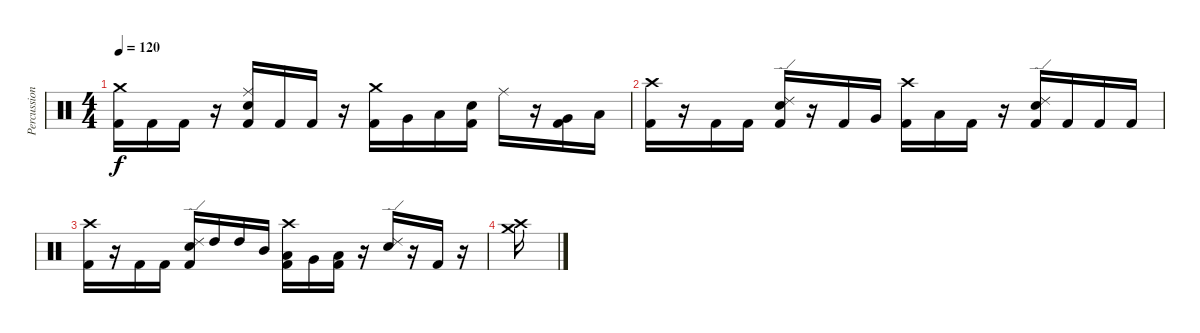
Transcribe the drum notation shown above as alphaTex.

\track ("Percussion" "Percussion") {instrument percussion}
\staff {score}
\articulation defaults
\ts (4 4)
\tempo 120
\clef neutral
\ks c
("Crash medium (hit)" "Kick (hit) 2").16{dy f} "Kick (hit) 2".16 "Kick (hit) 2".16 r.16 ("Ride (middle)" "Electric Snare (hit)" "Kick (hit) 2").16 "Kick (hit) 2".16 "Kick (hit) 2".16 r.16 ("Crash medium (hit)" "Kick (hit) 2").16 "Very Low Tom (hit)".16 "Low Tom (hit)".16 ("Electric Snare (hit)" "Kick (hit) 2").16 "Ride (middle)".16 r.16 ("Very Low Tom (hit)" "Kick (hit) 2").16 "Low Floor Tom (hit)".16 |
("Crash high (hit)" "Kick (hit) 2").16 r.16 "Kick (hit) 2".16 "Kick (hit) 2".16 ("Ride (edge) 2" "Electric Snare (hit)" "Kick (hit) 2").16 r.16 "Kick (hit) 2".16 "Very Low Tom (hit)".16 ("Crash high (hit)" "Kick (hit) 2").16 "Low Floor Tom (hit)".16 "Kick (hit) 2".16 r.16 ("Ride (edge) 2" "Electric Snare (hit)" "Kick (hit) 2").16 "Kick (hit) 2".16 "Kick (hit) 2".16 "Kick (hit) 2".16 |
("Crash high (hit)" "Kick (hit) 2").16 r.16 "Kick (hit) 2".16 "Kick (hit) 2".16 ("Ride (edge) 2" "Electric Snare (hit)" "Kick (hit) 2").16 "High Tom (hit)".16 "High Tom (hit)".16 "Mid Tom (hit)".16 ("Crash high (hit)" "Low Tom (hit)" "Kick (hit) 2").16 "Very Low Tom (hit)".16 ("Low Floor Tom (hit)" "Kick (hit) 2").16 r.16 ("Ride (edge) 2" "Electric Snare (hit)").16 r.16 "Kick (hit) 2".16 r.16 |
("Crash high (hit)" "Crash medium (hit)").16
